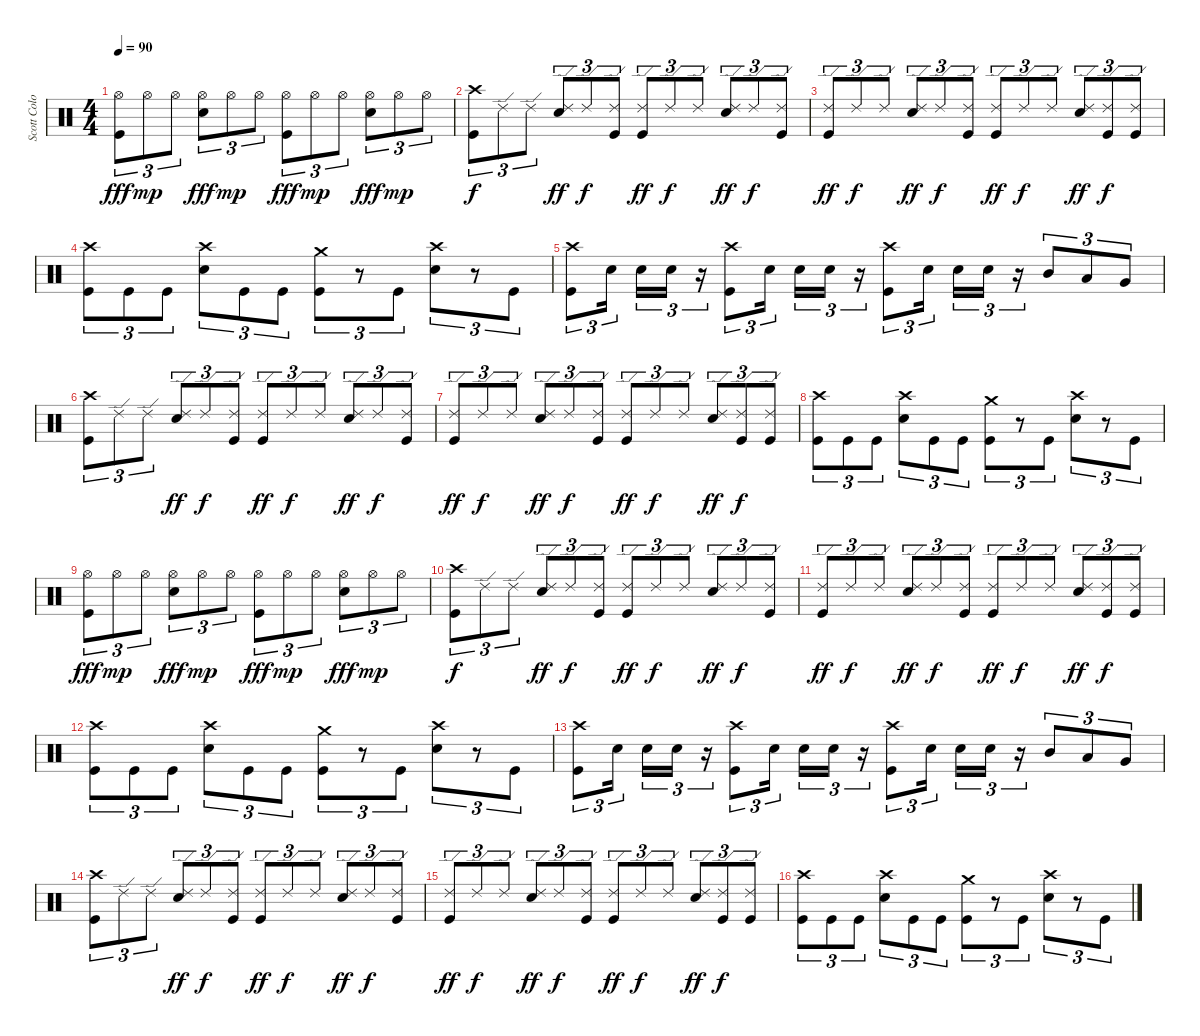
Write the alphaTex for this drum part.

\track ("Scott Colombus" "Scott Colo") {instrument percussion}
\staff {score}
\articulation defaults
\ts (4 4)
\tempo 90
\clef neutral
\ks c
("Hi-Hat (open)" "Kick (hit)").8{tu (3 2) dy fff} "Hi-Hat (open)".8{tu (3 2) dy mp} "Hi-Hat (open)".8{tu (3 2)} ("Hi-Hat (open)" "Snare (hit) 2").8{tu (3 2) dy fff} "Hi-Hat (open)".8{tu (3 2) dy mp} "Hi-Hat (open)".8{tu (3 2)} ("Hi-Hat (open)" "Kick (hit)").8{tu (3 2) dy fff} "Hi-Hat (open)".8{tu (3 2) dy mp} "Hi-Hat (open)".8{tu (3 2)} ("Hi-Hat (open)" "Snare (hit) 2").8{tu (3 2) dy fff} "Hi-Hat (open)".8{tu (3 2) dy mp} "Hi-Hat (open)".8{tu (3 2)} |
("Crash high (hit)" "Kick (hit)").8{tu (3 2) dy f} "Ride (edge) 2".8{tu (3 2)} "Ride (edge) 2".8{tu (3 2)} ("Ride (edge) 2" "Snare (hit) 2").8{tu (3 2) dy ff} "Ride (edge) 2".8{tu (3 2) dy f} ("Ride (edge) 2" "Kick (hit)").8{tu (3 2)} ("Ride (edge) 2" "Kick (hit)").8{tu (3 2) dy ff} "Ride (edge) 2".8{tu (3 2) dy f} "Ride (edge) 2".8{tu (3 2)} ("Ride (edge) 2" "Snare (hit) 2").8{tu (3 2) dy ff} "Ride (edge) 2".8{tu (3 2) dy f} ("Ride (edge) 2" "Kick (hit)").8{tu (3 2)} |
("Ride (edge) 2" "Kick (hit)").8{tu (3 2) dy ff} "Ride (edge) 2".8{tu (3 2) dy f} "Ride (edge) 2".8{tu (3 2)} ("Ride (edge) 2" "Snare (hit) 2").8{tu (3 2) dy ff} "Ride (edge) 2".8{tu (3 2) dy f} ("Ride (edge) 2" "Kick (hit)").8{tu (3 2)} ("Ride (edge) 2" "Kick (hit)").8{tu (3 2) dy ff} "Ride (edge) 2".8{tu (3 2) dy f} "Ride (edge) 2".8{tu (3 2)} ("Ride (edge) 2" "Snare (hit) 2").8{tu (3 2) dy ff} ("Ride (edge) 2" "Kick (hit)").8{tu (3 2) dy f} ("Ride (edge) 2" "Kick (hit)").8{tu (3 2)} |
("Crash high (hit)" "Kick (hit)").8{tu (3 2)} "Kick (hit)".8{tu (3 2)} "Kick (hit)".8{tu (3 2)} ("Crash high (hit)" "Snare (hit) 2").8{tu (3 2)} "Kick (hit)".8{tu (3 2)} "Kick (hit)".8{tu (3 2)} ("Crash medium (hit)" "Kick (hit)").8{tu (3 2)} r.8{tu (3 2)} "Kick (hit)".8{tu (3 2)} ("Crash high (hit)" "Snare (hit) 2").8{tu (3 2)} r.8{tu (3 2)} "Kick (hit)".8{tu (3 2)} |
("Crash high (hit)" "Kick (hit)").8{tu (3 2)} "Snare (hit) 2".16{tu (3 2)} "Snare (hit) 2".16{tu (3 2)} "Snare (hit) 2".16{tu (3 2)} r.16{tu (3 2)} ("Crash high (hit)" "Kick (hit)").8{tu (3 2)} "Snare (hit) 2".16{tu (3 2)} "Snare (hit) 2".16{tu (3 2)} "Snare (hit) 2".16{tu (3 2)} r.16{tu (3 2)} ("Crash high (hit)" "Kick (hit)").8{tu (3 2)} "Snare (hit) 2".16{tu (3 2)} "Snare (hit) 2".16{tu (3 2)} "Snare (hit) 2".16{tu (3 2)} r.16{tu (3 2)} "Mid Tom (hit)".8{tu (3 2)} "Low Tom (hit)".8{tu (3 2)} "Very Low Tom (hit)".8{tu (3 2)} |
("Crash high (hit)" "Kick (hit)").8{tu (3 2)} "Ride (edge) 2".8{tu (3 2)} "Ride (edge) 2".8{tu (3 2)} ("Ride (edge) 2" "Snare (hit) 2").8{tu (3 2) dy ff} "Ride (edge) 2".8{tu (3 2) dy f} ("Ride (edge) 2" "Kick (hit)").8{tu (3 2)} ("Ride (edge) 2" "Kick (hit)").8{tu (3 2) dy ff} "Ride (edge) 2".8{tu (3 2) dy f} "Ride (edge) 2".8{tu (3 2)} ("Ride (edge) 2" "Snare (hit) 2").8{tu (3 2) dy ff} "Ride (edge) 2".8{tu (3 2) dy f} ("Ride (edge) 2" "Kick (hit)").8{tu (3 2)} |
("Ride (edge) 2" "Kick (hit)").8{tu (3 2) dy ff} "Ride (edge) 2".8{tu (3 2) dy f} "Ride (edge) 2".8{tu (3 2)} ("Ride (edge) 2" "Snare (hit) 2").8{tu (3 2) dy ff} "Ride (edge) 2".8{tu (3 2) dy f} ("Ride (edge) 2" "Kick (hit)").8{tu (3 2)} ("Ride (edge) 2" "Kick (hit)").8{tu (3 2) dy ff} "Ride (edge) 2".8{tu (3 2) dy f} "Ride (edge) 2".8{tu (3 2)} ("Ride (edge) 2" "Snare (hit) 2").8{tu (3 2) dy ff} ("Ride (edge) 2" "Kick (hit)").8{tu (3 2) dy f} ("Ride (edge) 2" "Kick (hit)").8{tu (3 2)} |
("Crash high (hit)" "Kick (hit)").8{tu (3 2)} "Kick (hit)".8{tu (3 2)} "Kick (hit)".8{tu (3 2)} ("Crash high (hit)" "Snare (hit) 2").8{tu (3 2)} "Kick (hit)".8{tu (3 2)} "Kick (hit)".8{tu (3 2)} ("Crash medium (hit)" "Kick (hit)").8{tu (3 2)} r.8{tu (3 2)} "Kick (hit)".8{tu (3 2)} ("Crash high (hit)" "Snare (hit) 2").8{tu (3 2)} r.8{tu (3 2)} "Kick (hit)".8{tu (3 2)} |
("Hi-Hat (open)" "Kick (hit)").8{tu (3 2) dy fff} "Hi-Hat (open)".8{tu (3 2) dy mp} "Hi-Hat (open)".8{tu (3 2)} ("Hi-Hat (open)" "Snare (hit) 2").8{tu (3 2) dy fff} "Hi-Hat (open)".8{tu (3 2) dy mp} "Hi-Hat (open)".8{tu (3 2)} ("Hi-Hat (open)" "Kick (hit)").8{tu (3 2) dy fff} "Hi-Hat (open)".8{tu (3 2) dy mp} "Hi-Hat (open)".8{tu (3 2)} ("Hi-Hat (open)" "Snare (hit) 2").8{tu (3 2) dy fff} "Hi-Hat (open)".8{tu (3 2) dy mp} "Hi-Hat (open)".8{tu (3 2)} |
("Crash high (hit)" "Kick (hit)").8{tu (3 2) dy f} "Ride (edge) 2".8{tu (3 2)} "Ride (edge) 2".8{tu (3 2)} ("Ride (edge) 2" "Snare (hit) 2").8{tu (3 2) dy ff} "Ride (edge) 2".8{tu (3 2) dy f} ("Ride (edge) 2" "Kick (hit)").8{tu (3 2)} ("Ride (edge) 2" "Kick (hit)").8{tu (3 2) dy ff} "Ride (edge) 2".8{tu (3 2) dy f} "Ride (edge) 2".8{tu (3 2)} ("Ride (edge) 2" "Snare (hit) 2").8{tu (3 2) dy ff} "Ride (edge) 2".8{tu (3 2) dy f} ("Ride (edge) 2" "Kick (hit)").8{tu (3 2)} |
("Ride (edge) 2" "Kick (hit)").8{tu (3 2) dy ff} "Ride (edge) 2".8{tu (3 2) dy f} "Ride (edge) 2".8{tu (3 2)} ("Ride (edge) 2" "Snare (hit) 2").8{tu (3 2) dy ff} "Ride (edge) 2".8{tu (3 2) dy f} ("Ride (edge) 2" "Kick (hit)").8{tu (3 2)} ("Ride (edge) 2" "Kick (hit)").8{tu (3 2) dy ff} "Ride (edge) 2".8{tu (3 2) dy f} "Ride (edge) 2".8{tu (3 2)} ("Ride (edge) 2" "Snare (hit) 2").8{tu (3 2) dy ff} ("Ride (edge) 2" "Kick (hit)").8{tu (3 2) dy f} ("Ride (edge) 2" "Kick (hit)").8{tu (3 2)} |
("Crash high (hit)" "Kick (hit)").8{tu (3 2)} "Kick (hit)".8{tu (3 2)} "Kick (hit)".8{tu (3 2)} ("Crash high (hit)" "Snare (hit) 2").8{tu (3 2)} "Kick (hit)".8{tu (3 2)} "Kick (hit)".8{tu (3 2)} ("Crash medium (hit)" "Kick (hit)").8{tu (3 2)} r.8{tu (3 2)} "Kick (hit)".8{tu (3 2)} ("Crash high (hit)" "Snare (hit) 2").8{tu (3 2)} r.8{tu (3 2)} "Kick (hit)".8{tu (3 2)} |
("Crash high (hit)" "Kick (hit)").8{tu (3 2)} "Snare (hit) 2".16{tu (3 2)} "Snare (hit) 2".16{tu (3 2)} "Snare (hit) 2".16{tu (3 2)} r.16{tu (3 2)} ("Crash high (hit)" "Kick (hit)").8{tu (3 2)} "Snare (hit) 2".16{tu (3 2)} "Snare (hit) 2".16{tu (3 2)} "Snare (hit) 2".16{tu (3 2)} r.16{tu (3 2)} ("Crash high (hit)" "Kick (hit)").8{tu (3 2)} "Snare (hit) 2".16{tu (3 2)} "Snare (hit) 2".16{tu (3 2)} "Snare (hit) 2".16{tu (3 2)} r.16{tu (3 2)} "Mid Tom (hit)".8{tu (3 2)} "Low Tom (hit)".8{tu (3 2)} "Very Low Tom (hit)".8{tu (3 2)} |
("Crash high (hit)" "Kick (hit)").8{tu (3 2)} "Ride (edge) 2".8{tu (3 2)} "Ride (edge) 2".8{tu (3 2)} ("Ride (edge) 2" "Snare (hit) 2").8{tu (3 2) dy ff} "Ride (edge) 2".8{tu (3 2) dy f} ("Ride (edge) 2" "Kick (hit)").8{tu (3 2)} ("Ride (edge) 2" "Kick (hit)").8{tu (3 2) dy ff} "Ride (edge) 2".8{tu (3 2) dy f} "Ride (edge) 2".8{tu (3 2)} ("Ride (edge) 2" "Snare (hit) 2").8{tu (3 2) dy ff} "Ride (edge) 2".8{tu (3 2) dy f} ("Ride (edge) 2" "Kick (hit)").8{tu (3 2)} |
("Ride (edge) 2" "Kick (hit)").8{tu (3 2) dy ff} "Ride (edge) 2".8{tu (3 2) dy f} "Ride (edge) 2".8{tu (3 2)} ("Ride (edge) 2" "Snare (hit) 2").8{tu (3 2) dy ff} "Ride (edge) 2".8{tu (3 2) dy f} ("Ride (edge) 2" "Kick (hit)").8{tu (3 2)} ("Ride (edge) 2" "Kick (hit)").8{tu (3 2) dy ff} "Ride (edge) 2".8{tu (3 2) dy f} "Ride (edge) 2".8{tu (3 2)} ("Ride (edge) 2" "Snare (hit) 2").8{tu (3 2) dy ff} ("Ride (edge) 2" "Kick (hit)").8{tu (3 2) dy f} ("Ride (edge) 2" "Kick (hit)").8{tu (3 2)} |
("Crash high (hit)" "Kick (hit)").8{tu (3 2)} "Kick (hit)".8{tu (3 2)} "Kick (hit)".8{tu (3 2)} ("Crash high (hit)" "Snare (hit) 2").8{tu (3 2)} "Kick (hit)".8{tu (3 2)} "Kick (hit)".8{tu (3 2)} ("Crash medium (hit)" "Kick (hit)").8{tu (3 2)} r.8{tu (3 2)} "Kick (hit)".8{tu (3 2)} ("Crash high (hit)" "Snare (hit) 2").8{tu (3 2)} r.8{tu (3 2)} "Kick (hit)".8{tu (3 2)}
